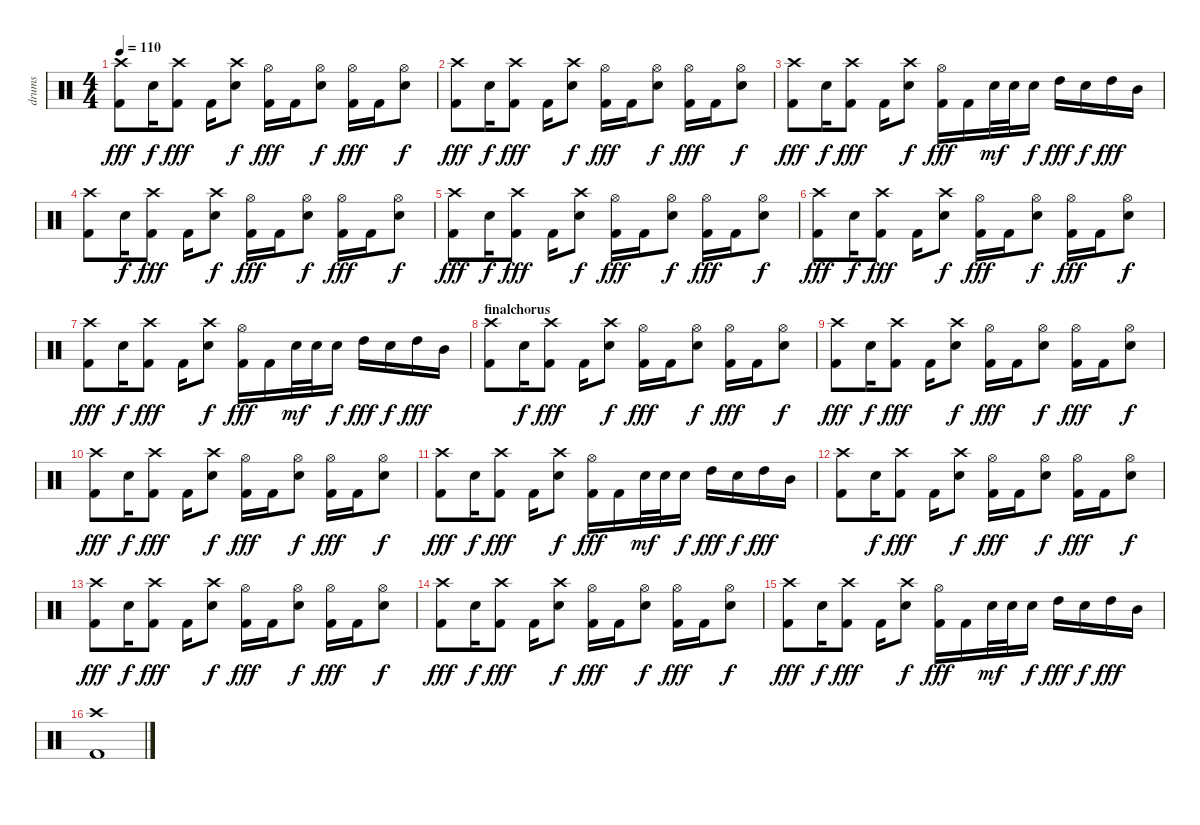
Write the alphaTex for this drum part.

\track ("drums" "drums") {instrument percussion}
\staff {score}
\articulation defaults
\ts (4 4)
\tempo 110
\clef neutral
\ks c
("Crash high (hit)" "Kick (hit) 2").8{dy fff} "Snare (hit) 2".16{dy f} ("Crash high (hit)" "Kick (hit) 2").8{dy fff} "Kick (hit) 2".16 ("Crash high (hit)" "Snare (hit) 2").8{dy f} ("Hi-Hat (open)" "Kick (hit) 2").16{dy fff} "Kick (hit) 2".16 ("Hi-Hat (open)" "Snare (hit) 2").8{dy f} ("Hi-Hat (open)" "Kick (hit) 2").16{dy fff} "Kick (hit) 2".16 ("Hi-Hat (open)" "Snare (hit) 2").8{dy f} |
("Crash high (hit)" "Kick (hit) 2").8{dy fff} "Snare (hit) 2".16{dy f} ("Crash high (hit)" "Kick (hit) 2").8{dy fff} "Kick (hit) 2".16 ("Crash high (hit)" "Snare (hit) 2").8{dy f} ("Hi-Hat (open)" "Kick (hit) 2").16{dy fff} "Kick (hit) 2".16 ("Hi-Hat (open)" "Snare (hit) 2").8{dy f} ("Hi-Hat (open)" "Kick (hit) 2").16{dy fff} "Kick (hit) 2".16 ("Hi-Hat (open)" "Snare (hit) 2").8{dy f} |
("Crash high (hit)" "Kick (hit) 2").8{dy fff} "Snare (hit) 2".16{dy f} ("Crash high (hit)" "Kick (hit) 2").8{dy fff} "Kick (hit) 2".16 ("Crash high (hit)" "Snare (hit) 2").8{dy f} ("Hi-Hat (open)" "Kick (hit) 2").16{dy fff} "Kick (hit) 2".16 "Snare (hit) 2".32{dy mf} "Snare (hit) 2".32 "Snare (hit) 2".16{dy f} "High Tom (hit)".16{dy fff} "Snare (hit) 2".16{dy f} "High Tom (hit)".16{dy fff} "Mid Tom (hit)".16 |
("Crash high (hit)" "Kick (hit) 2").8 "Snare (hit) 2".16{dy f} ("Crash high (hit)" "Kick (hit) 2").8{dy fff} "Kick (hit) 2".16 ("Crash high (hit)" "Snare (hit) 2").8{dy f} ("Hi-Hat (open)" "Kick (hit) 2").16{dy fff} "Kick (hit) 2".16 ("Hi-Hat (open)" "Snare (hit) 2").8{dy f} ("Hi-Hat (open)" "Kick (hit) 2").16{dy fff} "Kick (hit) 2".16 ("Hi-Hat (open)" "Snare (hit) 2").8{dy f} |
("Crash high (hit)" "Kick (hit) 2").8{dy fff} "Snare (hit) 2".16{dy f} ("Crash high (hit)" "Kick (hit) 2").8{dy fff} "Kick (hit) 2".16 ("Crash high (hit)" "Snare (hit) 2").8{dy f} ("Hi-Hat (open)" "Kick (hit) 2").16{dy fff} "Kick (hit) 2".16 ("Hi-Hat (open)" "Snare (hit) 2").8{dy f} ("Hi-Hat (open)" "Kick (hit) 2").16{dy fff} "Kick (hit) 2".16 ("Hi-Hat (open)" "Snare (hit) 2").8{dy f} |
("Crash high (hit)" "Kick (hit) 2").8{dy fff} "Snare (hit) 2".16{dy f} ("Crash high (hit)" "Kick (hit) 2").8{dy fff} "Kick (hit) 2".16 ("Crash high (hit)" "Snare (hit) 2").8{dy f} ("Hi-Hat (open)" "Kick (hit) 2").16{dy fff} "Kick (hit) 2".16 ("Hi-Hat (open)" "Snare (hit) 2").8{dy f} ("Hi-Hat (open)" "Kick (hit) 2").16{dy fff} "Kick (hit) 2".16 ("Hi-Hat (open)" "Snare (hit) 2").8{dy f} |
("Crash high (hit)" "Kick (hit) 2").8{dy fff} "Snare (hit) 2".16{dy f} ("Crash high (hit)" "Kick (hit) 2").8{dy fff} "Kick (hit) 2".16 ("Crash high (hit)" "Snare (hit) 2").8{dy f} ("Hi-Hat (open)" "Kick (hit) 2").16{dy fff} "Kick (hit) 2".16 "Snare (hit) 2".32{dy mf} "Snare (hit) 2".32 "Snare (hit) 2".16{dy f} "High Tom (hit)".16{dy fff} "Snare (hit) 2".16{dy f} "High Tom (hit)".16{dy fff} "Mid Tom (hit)".16 |
\section ("" "finalchorus")
("Crash high (hit)" "Kick (hit) 2").8 "Snare (hit) 2".16{dy f} ("Crash high (hit)" "Kick (hit) 2").8{dy fff} "Kick (hit) 2".16 ("Crash high (hit)" "Snare (hit) 2").8{dy f} ("Hi-Hat (open)" "Kick (hit) 2").16{dy fff} "Kick (hit) 2".16 ("Hi-Hat (open)" "Snare (hit) 2").8{dy f} ("Hi-Hat (open)" "Kick (hit) 2").16{dy fff} "Kick (hit) 2".16 ("Hi-Hat (open)" "Snare (hit) 2").8{dy f} |
("Crash high (hit)" "Kick (hit) 2").8{dy fff} "Snare (hit) 2".16{dy f} ("Crash high (hit)" "Kick (hit) 2").8{dy fff} "Kick (hit) 2".16 ("Crash high (hit)" "Snare (hit) 2").8{dy f} ("Hi-Hat (open)" "Kick (hit) 2").16{dy fff} "Kick (hit) 2".16 ("Hi-Hat (open)" "Snare (hit) 2").8{dy f} ("Hi-Hat (open)" "Kick (hit) 2").16{dy fff} "Kick (hit) 2".16 ("Hi-Hat (open)" "Snare (hit) 2").8{dy f} |
("Crash high (hit)" "Kick (hit) 2").8{dy fff} "Snare (hit) 2".16{dy f} ("Crash high (hit)" "Kick (hit) 2").8{dy fff} "Kick (hit) 2".16 ("Crash high (hit)" "Snare (hit) 2").8{dy f} ("Hi-Hat (open)" "Kick (hit) 2").16{dy fff} "Kick (hit) 2".16 ("Hi-Hat (open)" "Snare (hit) 2").8{dy f} ("Hi-Hat (open)" "Kick (hit) 2").16{dy fff} "Kick (hit) 2".16 ("Hi-Hat (open)" "Snare (hit) 2").8{dy f} |
("Crash high (hit)" "Kick (hit) 2").8{dy fff} "Snare (hit) 2".16{dy f} ("Crash high (hit)" "Kick (hit) 2").8{dy fff} "Kick (hit) 2".16 ("Crash high (hit)" "Snare (hit) 2").8{dy f} ("Hi-Hat (open)" "Kick (hit) 2").16{dy fff} "Kick (hit) 2".16 "Snare (hit) 2".32{dy mf} "Snare (hit) 2".32 "Snare (hit) 2".16{dy f} "High Tom (hit)".16{dy fff} "Snare (hit) 2".16{dy f} "High Tom (hit)".16{dy fff} "Mid Tom (hit)".16 |
("Crash high (hit)" "Kick (hit) 2").8 "Snare (hit) 2".16{dy f} ("Crash high (hit)" "Kick (hit) 2").8{dy fff} "Kick (hit) 2".16 ("Crash high (hit)" "Snare (hit) 2").8{dy f} ("Hi-Hat (open)" "Kick (hit) 2").16{dy fff} "Kick (hit) 2".16 ("Hi-Hat (open)" "Snare (hit) 2").8{dy f} ("Hi-Hat (open)" "Kick (hit) 2").16{dy fff} "Kick (hit) 2".16 ("Hi-Hat (open)" "Snare (hit) 2").8{dy f} |
("Crash high (hit)" "Kick (hit) 2").8{dy fff} "Snare (hit) 2".16{dy f} ("Crash high (hit)" "Kick (hit) 2").8{dy fff} "Kick (hit) 2".16 ("Crash high (hit)" "Snare (hit) 2").8{dy f} ("Hi-Hat (open)" "Kick (hit) 2").16{dy fff} "Kick (hit) 2".16 ("Hi-Hat (open)" "Snare (hit) 2").8{dy f} ("Hi-Hat (open)" "Kick (hit) 2").16{dy fff} "Kick (hit) 2".16 ("Hi-Hat (open)" "Snare (hit) 2").8{dy f} |
("Crash high (hit)" "Kick (hit) 2").8{dy fff} "Snare (hit) 2".16{dy f} ("Crash high (hit)" "Kick (hit) 2").8{dy fff} "Kick (hit) 2".16 ("Crash high (hit)" "Snare (hit) 2").8{dy f} ("Hi-Hat (open)" "Kick (hit) 2").16{dy fff} "Kick (hit) 2".16 ("Hi-Hat (open)" "Snare (hit) 2").8{dy f} ("Hi-Hat (open)" "Kick (hit) 2").16{dy fff} "Kick (hit) 2".16 ("Hi-Hat (open)" "Snare (hit) 2").8{dy f} |
("Crash high (hit)" "Kick (hit) 2").8{dy fff} "Snare (hit) 2".16{dy f} ("Crash high (hit)" "Kick (hit) 2").8{dy fff} "Kick (hit) 2".16 ("Crash high (hit)" "Snare (hit) 2").8{dy f} ("Hi-Hat (open)" "Kick (hit) 2").16{dy fff} "Kick (hit) 2".16 "Snare (hit) 2".32{dy mf} "Snare (hit) 2".32 "Snare (hit) 2".16{dy f} "High Tom (hit)".16{dy fff} "Snare (hit) 2".16{dy f} "High Tom (hit)".16{dy fff} "Mid Tom (hit)".16 |
("Crash high (hit)" "Kick (hit) 2").1
